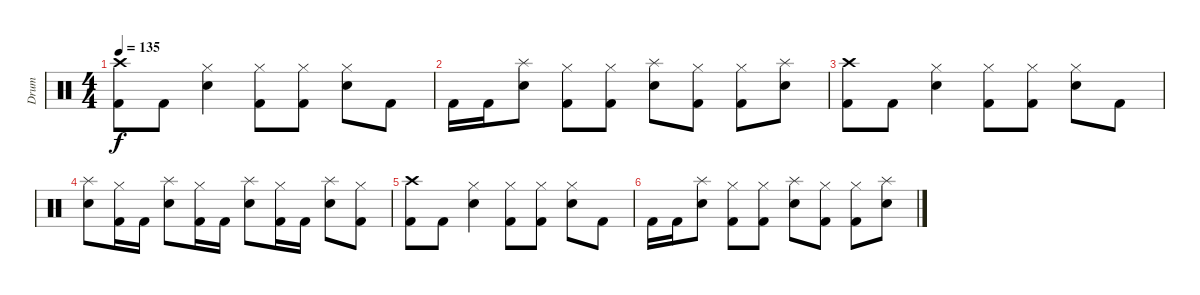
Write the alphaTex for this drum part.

\track ("Drum" "Drum") {instrument percussion}
\staff {score}
\articulation defaults
\ts (4 4)
\tempo 135
\clef neutral
\ks c
("Crash high (hit)" "Kick (hit) 2").8{dy f} "Kick (hit) 2".8 ("Hi-Hat (closed)" "Electric Snare (hit)").4 ("Hi-Hat (closed)" "Kick (hit) 2").8 ("Hi-Hat (closed)" "Kick (hit) 2").8 ("Electric Snare (hit)" "Hi-Hat (closed)").8 "Kick (hit) 2".8 |
"Kick (hit) 2".16 "Kick (hit) 2".16 ("Splash (hit)" "Electric Snare (hit)").8 ("Hi-Hat (closed)" "Kick (hit) 2").8 ("Hi-Hat (closed)" "Kick (hit) 2").8 ("Splash (hit)" "Electric Snare (hit)").8 ("Hi-Hat (closed)" "Kick (hit) 2").8 ("Hi-Hat (closed)" "Kick (hit) 2").8 ("Splash (hit)" "Electric Snare (hit)").8 |
("Crash high (hit)" "Kick (hit) 2").8 "Kick (hit) 2".8 ("Hi-Hat (closed)" "Electric Snare (hit)").4 ("Hi-Hat (closed)" "Kick (hit) 2").8 ("Hi-Hat (closed)" "Kick (hit) 2").8 ("Electric Snare (hit)" "Hi-Hat (closed)").8 "Kick (hit) 2".8 |
("Splash (hit)" "Electric Snare (hit)").8 ("Hi-Hat (closed)" "Kick (hit) 2").16 "Kick (hit) 2".16 ("Splash (hit)" "Electric Snare (hit)").8 ("Hi-Hat (closed)" "Kick (hit) 2").16 "Kick (hit) 2".16 ("Splash (hit)" "Electric Snare (hit)").8 ("Hi-Hat (closed)" "Kick (hit) 2").16 "Kick (hit) 2".16 ("Splash (hit)" "Electric Snare (hit)").8 ("Hi-Hat (closed)" "Kick (hit) 2").8 |
("Crash high (hit)" "Kick (hit) 2").8 "Kick (hit) 2".8 ("Hi-Hat (closed)" "Electric Snare (hit)").4 ("Hi-Hat (closed)" "Kick (hit) 2").8 ("Hi-Hat (closed)" "Kick (hit) 2").8 ("Electric Snare (hit)" "Hi-Hat (closed)").8 "Kick (hit) 2".8 |
"Kick (hit) 2".16 "Kick (hit) 2".16 ("Splash (hit)" "Electric Snare (hit)").8 ("Hi-Hat (closed)" "Kick (hit) 2").8 ("Hi-Hat (closed)" "Kick (hit) 2").8 ("Splash (hit)" "Electric Snare (hit)").8 ("Hi-Hat (closed)" "Kick (hit) 2").8 ("Hi-Hat (closed)" "Kick (hit) 2").8 ("Splash (hit)" "Electric Snare (hit)").8
